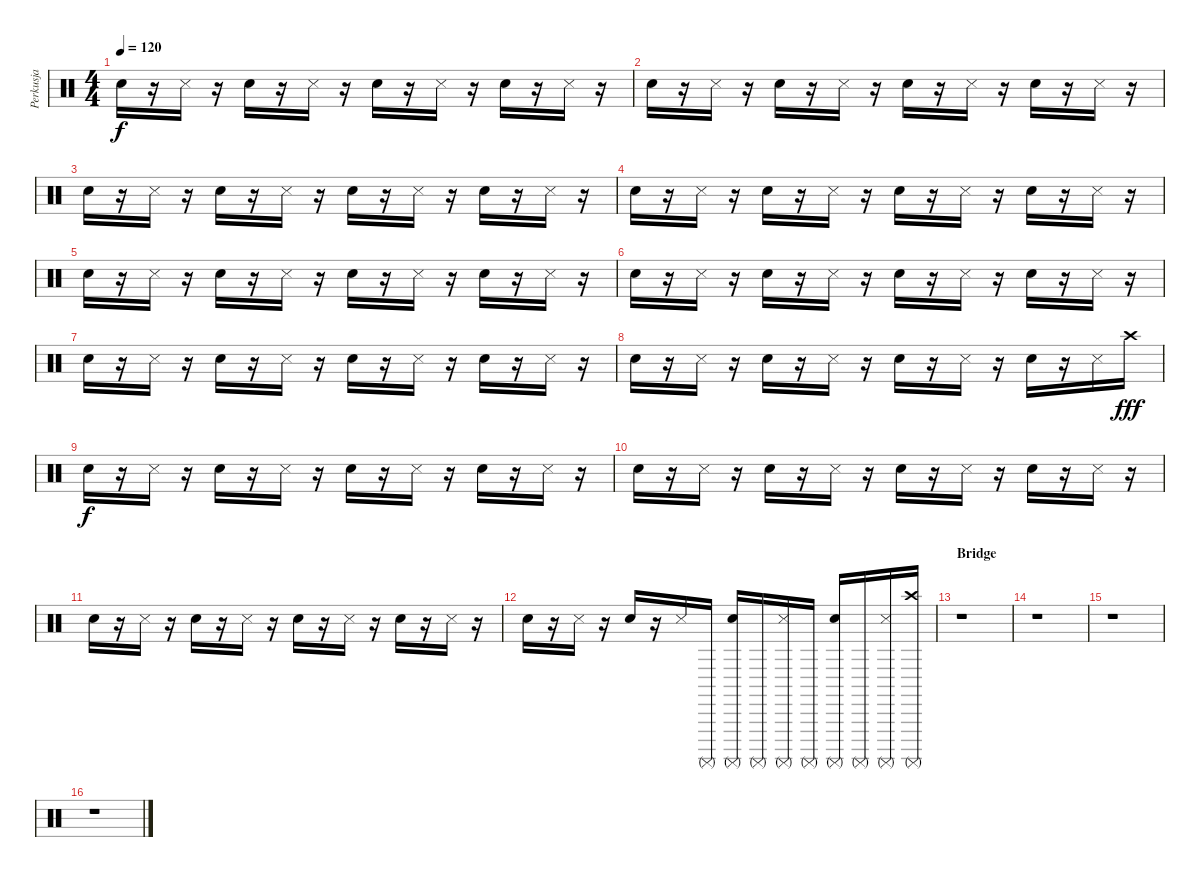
\track ("Perkusja" "Perkusja") {instrument percussion}
\staff {score}
\articulation defaults
\ts (4 4)
\tempo 120
\clef neutral
\ks c "Snare (hit) 2".16{dy f}
r.16 "Snare (side stick) 3".16 r.16 "Snare (hit) 2".16 r.16 "Snare (side stick) 3".16 r.16 "Snare (hit) 2".16 r.16 "Snare (side stick) 3".16 r.16 "Snare (hit) 2".16 r.16 "Snare (side stick) 3".16 r.16 |
"Snare (hit) 2".16 r.16 "Snare (side stick) 3".16 r.16 "Snare (hit) 2".16 r.16 "Snare (side stick) 3".16 r.16 "Snare (hit) 2".16 r.16 "Snare (side stick) 3".16 r.16 "Snare (hit) 2".16 r.16 "Snare (side stick) 3".16 r.16 |
"Snare (hit) 2".16 r.16 "Snare (side stick) 3".16 r.16 "Snare (hit) 2".16 r.16 "Snare (side stick) 3".16 r.16 "Snare (hit) 2".16 r.16 "Snare (side stick) 3".16 r.16 "Snare (hit) 2".16 r.16 "Snare (side stick) 3".16 r.16 |
"Snare (hit) 2".16 r.16 "Snare (side stick) 3".16 r.16 "Snare (hit) 2".16 r.16 "Snare (side stick) 3".16 r.16 "Snare (hit) 2".16 r.16 "Snare (side stick) 3".16 r.16 "Snare (hit) 2".16 r.16 "Snare (side stick) 3".16 r.16 |
"Snare (hit) 2".16 r.16 "Snare (side stick) 3".16 r.16 "Snare (hit) 2".16 r.16 "Snare (side stick) 3".16 r.16 "Snare (hit) 2".16 r.16 "Snare (side stick) 3".16 r.16 "Snare (hit) 2".16 r.16 "Snare (side stick) 3".16 r.16 |
"Snare (hit) 2".16 r.16 "Snare (side stick) 3".16 r.16 "Snare (hit) 2".16 r.16 "Snare (side stick) 3".16 r.16 "Snare (hit) 2".16 r.16 "Snare (side stick) 3".16 r.16 "Snare (hit) 2".16 r.16 "Snare (side stick) 3".16 r.16 |
"Snare (hit) 2".16 r.16 "Snare (side stick) 3".16 r.16 "Snare (hit) 2".16 r.16 "Snare (side stick) 3".16 r.16 "Snare (hit) 2".16 r.16 "Snare (side stick) 3".16 r.16 "Snare (hit) 2".16 r.16 "Snare (side stick) 3".16 r.16 |
"Snare (hit) 2".16 r.16 "Snare (side stick) 3".16 r.16 "Snare (hit) 2".16 r.16 "Snare (side stick) 3".16 r.16 "Snare (hit) 2".16 r.16 "Snare (side stick) 3".16 r.16 "Snare (hit) 2".16 r.16 "Snare (side stick) 3".16 "Crash high (hit)".16{dy fff} |
"Snare (hit) 2".16{dy f} r.16 "Snare (side stick) 3".16 r.16 "Snare (hit) 2".16 r.16 "Snare (side stick) 3".16 r.16 "Snare (hit) 2".16 r.16 "Snare (side stick) 3".16 r.16 "Snare (hit) 2".16 r.16 "Snare (side stick) 3".16 r.16 |
"Snare (hit) 2".16 r.16 "Snare (side stick) 3".16 r.16 "Snare (hit) 2".16 r.16 "Snare (side stick) 3".16 r.16 "Snare (hit) 2".16 r.16 "Snare (side stick) 3".16 r.16 "Snare (hit) 2".16 r.16 "Snare (side stick) 3".16 r.16 |
"Snare (hit) 2".16 r.16 "Snare (side stick) 3".16 r.16 "Snare (hit) 2".16 r.16 "Snare (side stick) 3".16 r.16 "Snare (hit) 2".16 r.16 "Snare (side stick) 3".16 r.16 "Snare (hit) 2".16 r.16 "Snare (side stick) 3".16 r.16 |
"Snare (hit) 2".16 r.16 "Snare (side stick) 3".16 r.16 "Snare (hit) 2".16 r.16 "Snare (side stick) 3".16 "Surdo (mute)".16 ("Snare (hit) 2" "Surdo (mute)").16 "Surdo (mute)".16 ("Snare (side stick) 3" "Surdo (mute)").16 "Surdo (mute)".16 ("Snare (hit) 2" "Surdo (mute)").16 "Surdo (mute)".16 ("Snare (side stick) 3" "Surdo (mute)").16 ("Surdo (mute)" "Crash high (hit)").16 |
\section ("" "Bridge")
r.1 |
r.1 |
r.1 |
r.1
